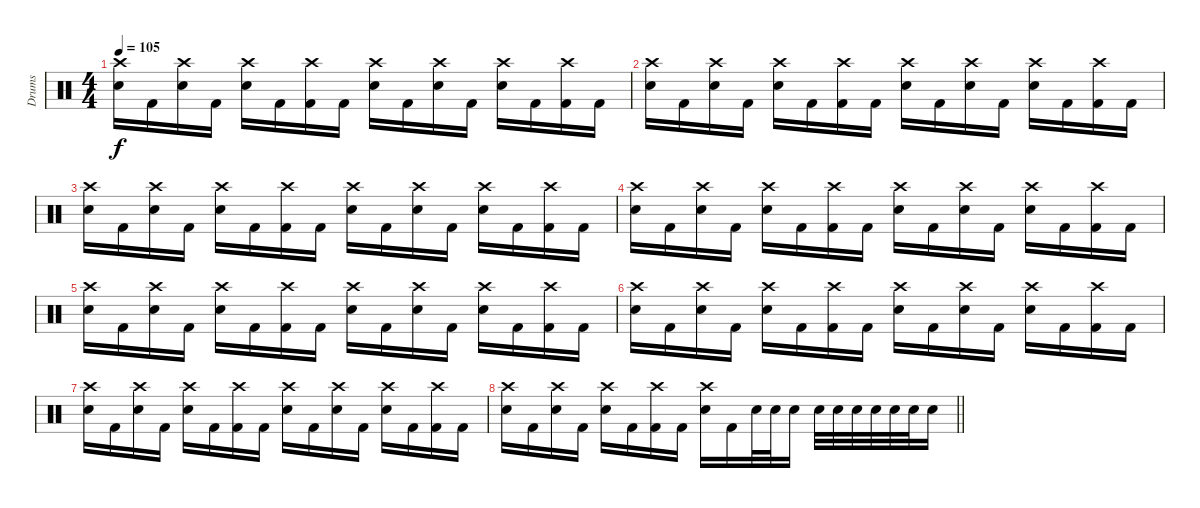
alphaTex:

\track ("Drums" "Drums") {instrument percussion}
\staff {score}
\articulation defaults
\ts (4 4)
\tempo 105
\clef neutral
\ks c
("Crash high (hit)" "Electric Snare (hit)").16{dy f} "Kick (hit) 2".16 ("Crash high (hit)" "Electric Snare (hit)").16 "Kick (hit) 2".16 ("Crash high (hit)" "Electric Snare (hit)").16 "Kick (hit) 2".16 ("Crash high (hit)" "Kick (hit) 2").16 "Kick (hit) 2".16 ("Crash high (hit)" "Electric Snare (hit)").16 "Kick (hit) 2".16 ("Crash high (hit)" "Electric Snare (hit)").16 "Kick (hit) 2".16 ("Crash high (hit)" "Electric Snare (hit)").16 "Kick (hit) 2".16 ("Crash high (hit)" "Kick (hit) 2").16 "Kick (hit) 2".16 |
("Crash high (hit)" "Electric Snare (hit)").16 "Kick (hit) 2".16 ("Crash high (hit)" "Electric Snare (hit)").16 "Kick (hit) 2".16 ("Crash high (hit)" "Electric Snare (hit)").16 "Kick (hit) 2".16 ("Crash high (hit)" "Kick (hit) 2").16 "Kick (hit) 2".16 ("Crash high (hit)" "Electric Snare (hit)").16 "Kick (hit) 2".16 ("Crash high (hit)" "Electric Snare (hit)").16 "Kick (hit) 2".16 ("Crash high (hit)" "Electric Snare (hit)").16 "Kick (hit) 2".16 ("Crash high (hit)" "Kick (hit) 2").16 "Kick (hit) 2".16 |
("Crash high (hit)" "Electric Snare (hit)").16 "Kick (hit) 2".16 ("Crash high (hit)" "Electric Snare (hit)").16 "Kick (hit) 2".16 ("Crash high (hit)" "Electric Snare (hit)").16 "Kick (hit) 2".16 ("Crash high (hit)" "Kick (hit) 2").16 "Kick (hit) 2".16 ("Crash high (hit)" "Electric Snare (hit)").16 "Kick (hit) 2".16 ("Crash high (hit)" "Electric Snare (hit)").16 "Kick (hit) 2".16 ("Crash high (hit)" "Electric Snare (hit)").16 "Kick (hit) 2".16 ("Crash high (hit)" "Kick (hit) 2").16 "Kick (hit) 2".16 |
("Crash high (hit)" "Electric Snare (hit)").16 "Kick (hit) 2".16 ("Crash high (hit)" "Electric Snare (hit)").16 "Kick (hit) 2".16 ("Crash high (hit)" "Electric Snare (hit)").16 "Kick (hit) 2".16 ("Crash high (hit)" "Kick (hit) 2").16 "Kick (hit) 2".16 ("Crash high (hit)" "Electric Snare (hit)").16 "Kick (hit) 2".16 ("Crash high (hit)" "Electric Snare (hit)").16 "Kick (hit) 2".16 ("Crash high (hit)" "Electric Snare (hit)").16 "Kick (hit) 2".16 ("Crash high (hit)" "Kick (hit) 2").16 "Kick (hit) 2".16 |
("Crash high (hit)" "Electric Snare (hit)").16 "Kick (hit) 2".16 ("Crash high (hit)" "Electric Snare (hit)").16 "Kick (hit) 2".16 ("Crash high (hit)" "Electric Snare (hit)").16 "Kick (hit) 2".16 ("Crash high (hit)" "Kick (hit) 2").16 "Kick (hit) 2".16 ("Crash high (hit)" "Electric Snare (hit)").16 "Kick (hit) 2".16 ("Crash high (hit)" "Electric Snare (hit)").16 "Kick (hit) 2".16 ("Crash high (hit)" "Electric Snare (hit)").16 "Kick (hit) 2".16 ("Crash high (hit)" "Kick (hit) 2").16 "Kick (hit) 2".16 |
("Crash high (hit)" "Electric Snare (hit)").16 "Kick (hit) 2".16 ("Crash high (hit)" "Electric Snare (hit)").16 "Kick (hit) 2".16 ("Crash high (hit)" "Electric Snare (hit)").16 "Kick (hit) 2".16 ("Crash high (hit)" "Kick (hit) 2").16 "Kick (hit) 2".16 ("Crash high (hit)" "Electric Snare (hit)").16 "Kick (hit) 2".16 ("Crash high (hit)" "Electric Snare (hit)").16 "Kick (hit) 2".16 ("Crash high (hit)" "Electric Snare (hit)").16 "Kick (hit) 2".16 ("Crash high (hit)" "Kick (hit) 2").16 "Kick (hit) 2".16 |
("Crash high (hit)" "Electric Snare (hit)").16 "Kick (hit) 2".16 ("Crash high (hit)" "Electric Snare (hit)").16 "Kick (hit) 2".16 ("Crash high (hit)" "Electric Snare (hit)").16 "Kick (hit) 2".16 ("Crash high (hit)" "Kick (hit) 2").16 "Kick (hit) 2".16 ("Crash high (hit)" "Electric Snare (hit)").16 "Kick (hit) 2".16 ("Crash high (hit)" "Electric Snare (hit)").16 "Kick (hit) 2".16 ("Crash high (hit)" "Electric Snare (hit)").16 "Kick (hit) 2".16 ("Crash high (hit)" "Kick (hit) 2").16 "Kick (hit) 2".16 |
\barLineRight lightlight
("Crash high (hit)" "Electric Snare (hit)").16 "Kick (hit) 2".16 ("Crash high (hit)" "Electric Snare (hit)").16 "Kick (hit) 2".16 ("Crash high (hit)" "Electric Snare (hit)").16 "Kick (hit) 2".16 ("Crash high (hit)" "Kick (hit) 2").16 "Kick (hit) 2".16 ("Crash high (hit)" "Electric Snare (hit)").16 "Kick (hit) 2".16 "Electric Snare (hit)".32 "Electric Snare (hit)".32 "Electric Snare (hit)".16 "Electric Snare (hit)".32 "Electric Snare (hit)".32 "Electric Snare (hit)".32 "Electric Snare (hit)".32 "Electric Snare (hit)".32 "Electric Snare (hit)".32 "Electric Snare (hit)".16
